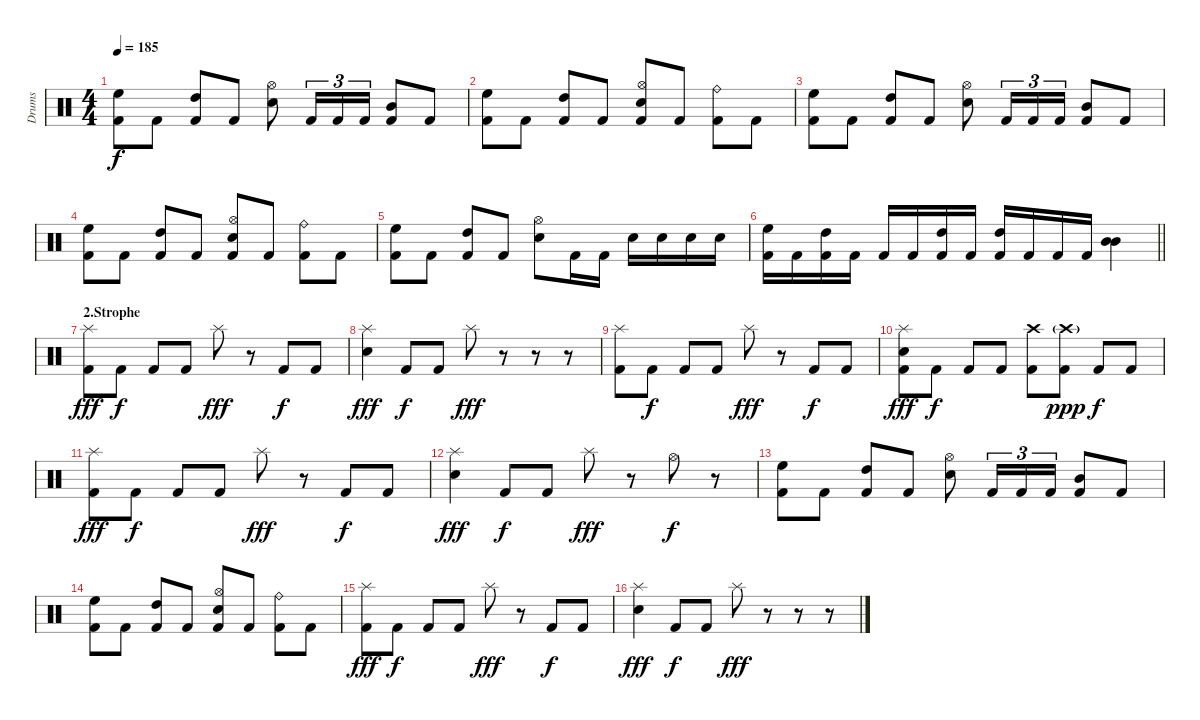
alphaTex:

\track ("Drums" "Drums") {instrument percussion}
\staff {score}
\articulation defaults
\ts (4 4)
\tempo 185
\clef neutral
\ks c
("High Floor Tom (hit)" "Kick (hit) 2").8{dy f} "Kick (hit) 2".8 ("High Tom (hit)" "Kick (hit) 2").8 "Kick (hit) 2".8 ("Hi-Hat (open)" "Electric Snare (hit)").8 "Kick (hit) 2".16{tu (3 2)} "Kick (hit) 2".16{tu (3 2)} "Kick (hit) 2".16{tu (3 2)} ("Mid Tom (hit)" "Kick (hit) 2").8 "Kick (hit) 2".8 |
("High Floor Tom (hit)" "Kick (hit) 2").8 "Kick (hit) 2".8 ("High Tom (hit)" "Kick (hit) 2").8 "Kick (hit) 2".8 ("Hi-Hat (open)" "Electric Snare (hit)" "Kick (hit) 2").8 "Kick (hit) 2".8 ("Ride (bell)" "Kick (hit) 2").8 "Kick (hit) 2".8 |
("High Floor Tom (hit)" "Kick (hit) 2").8 "Kick (hit) 2".8 ("High Tom (hit)" "Kick (hit) 2").8 "Kick (hit) 2".8 ("Hi-Hat (open)" "Electric Snare (hit)").8 "Kick (hit) 2".16{tu (3 2)} "Kick (hit) 2".16{tu (3 2)} "Kick (hit) 2".16{tu (3 2)} ("Mid Tom (hit)" "Kick (hit) 2").8 "Kick (hit) 2".8 |
("High Floor Tom (hit)" "Kick (hit) 2").8 "Kick (hit) 2".8 ("High Tom (hit)" "Kick (hit) 2").8 "Kick (hit) 2".8 ("Hi-Hat (open)" "Electric Snare (hit)" "Kick (hit) 2").8 "Kick (hit) 2".8 ("Ride (bell)" "Kick (hit) 2").8 "Kick (hit) 2".8 |
("High Floor Tom (hit)" "Kick (hit) 2").8 "Kick (hit) 2".8 ("High Tom (hit)" "Kick (hit) 2").8 "Kick (hit) 2".8 ("Hi-Hat (open)" "Electric Snare (hit)").8 "Kick (hit) 2".16 "Kick (hit) 2".16 "Electric Snare (hit)".16 "Electric Snare (hit)".16 "Electric Snare (hit)".16 "Electric Snare (hit)".16 |
\barLineRight lightlight
("High Floor Tom (hit)" "Kick (hit) 2").16 "Kick (hit) 2".16 ("High Tom (hit)" "Kick (hit) 2").16 "Kick (hit) 2".16 "Kick (hit) 2".16 "Kick (hit) 2".16 ("High Tom (hit)" "Kick (hit) 2").16 "Kick (hit) 2".16 ("High Tom (hit)" "Kick (hit) 2").16 "Kick (hit) 2".16 "Kick (hit) 2".16 "Kick (hit) 2".16 ("Mid Tom (hit)" "Mid Tom (hit)").4 |
\section ("" "2.Strophe")
("Splash (hit)" "Kick (hit) 2").8{dy fff} "Kick (hit) 2".8{dy f} "Kick (hit) 2".8 "Kick (hit) 2".8 "Splash (hit)".8{dy fff} r.8 "Kick (hit) 2".8{dy f} "Kick (hit) 2".8 |
("Splash (hit)" "Electric Snare (hit)").4{dy fff} "Kick (hit) 2".8{dy f} "Kick (hit) 2".8 "Splash (hit)".8{dy fff} r.8 r.8 r.8 |
("Splash (hit)" "Kick (hit) 2").8 "Kick (hit) 2".8{dy f} "Kick (hit) 2".8 "Kick (hit) 2".8 "Splash (hit)".8{dy fff} r.8 "Kick (hit) 2".8{dy f} "Kick (hit) 2".8 |
("Splash (hit)" "Electric Snare (hit)" "Kick (hit) 2").8{dy fff} "Kick (hit) 2".8{dy f} "Kick (hit) 2".8 "Kick (hit) 2".8 ("Crash high (hit)" "Kick (hit) 2").8 ("Crash high (hit)"{g} "Kick (hit) 2").8{dy ppp} "Kick (hit) 2".8{dy f} "Kick (hit) 2".8 |
("Splash (hit)" "Kick (hit) 2").8{dy fff} "Kick (hit) 2".8{dy f} "Kick (hit) 2".8 "Kick (hit) 2".8 "Splash (hit)".8{dy fff} r.8 "Kick (hit) 2".8{dy f} "Kick (hit) 2".8 |
("Splash (hit)" "Electric Snare (hit)").4{dy fff} "Kick (hit) 2".8{dy f} "Kick (hit) 2".8 "Splash (hit)".8{dy fff} r.8 "Hi-Hat (open)".8{dy f} r.8 |
("High Floor Tom (hit)" "Kick (hit) 2").8 "Kick (hit) 2".8 ("High Tom (hit)" "Kick (hit) 2").8 "Kick (hit) 2".8 ("Hi-Hat (open)" "Electric Snare (hit)").8 "Kick (hit) 2".16{tu (3 2)} "Kick (hit) 2".16{tu (3 2)} "Kick (hit) 2".16{tu (3 2)} ("Mid Tom (hit)" "Kick (hit) 2").8 "Kick (hit) 2".8 |
("High Floor Tom (hit)" "Kick (hit) 2").8 "Kick (hit) 2".8 ("High Tom (hit)" "Kick (hit) 2").8 "Kick (hit) 2".8 ("Hi-Hat (open)" "Electric Snare (hit)" "Kick (hit) 2").8 "Kick (hit) 2".8 ("Ride (bell)" "Kick (hit) 2").8 "Kick (hit) 2".8 |
("Splash (hit)" "Kick (hit) 2").8{dy fff} "Kick (hit) 2".8{dy f} "Kick (hit) 2".8 "Kick (hit) 2".8 "Splash (hit)".8{dy fff} r.8 "Kick (hit) 2".8{dy f} "Kick (hit) 2".8 |
("Splash (hit)" "Electric Snare (hit)").4{dy fff} "Kick (hit) 2".8{dy f} "Kick (hit) 2".8 "Splash (hit)".8{dy fff} r.8 r.8 r.8
